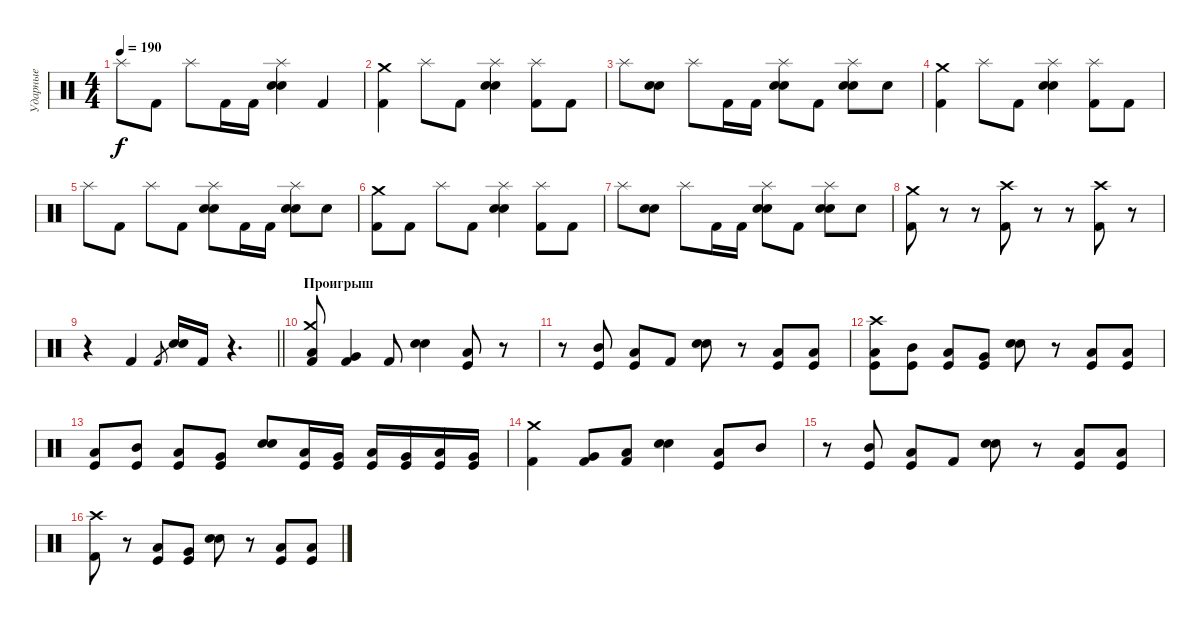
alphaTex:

\track ("Ударные" "Ударные") {instrument percussion}
\staff {score}
\articulation defaults
\ts (4 4)
\tempo 190
\clef neutral
\ks c "Splash (hit)".8{dy f} "Kick (hit) 2".8 "Splash (hit)".8 "Kick (hit) 2".16 "Kick (hit) 2".16
("Splash (hit)" "Electric Snare (hit)" "Snare (hit) 2").4 "Kick (hit) 2".4 |
("Crash medium (hit)" "Kick (hit) 2").4 "Splash (hit)".8 "Kick (hit) 2".8 ("Splash (hit)" "Electric Snare (hit)" "Snare (hit) 2").4 ("Splash (hit)" "Kick (hit) 2").8 "Kick (hit) 2".8 |
"Splash (hit)".8 ("Electric Snare (hit)" "Snare (hit) 2").8 "Splash (hit)".8 "Kick (hit) 2".16 "Kick (hit) 2".16 ("Splash (hit)" "Electric Snare (hit)" "Snare (hit) 2").8 "Kick (hit) 2".8 ("Splash (hit)" "Electric Snare (hit)" "Snare (hit) 2").8 "Electric Snare (hit)".8 |
("Crash medium (hit)" "Kick (hit) 2").4 "Splash (hit)".8 "Kick (hit) 2".8 ("Splash (hit)" "Electric Snare (hit)" "Snare (hit) 2").4 ("Splash (hit)" "Kick (hit) 2").8 "Kick (hit) 2".8 |
"Splash (hit)".8 "Kick (hit) 2".8 "Splash (hit)".8 "Kick (hit) 2".8 ("Splash (hit)" "Electric Snare (hit)" "Snare (hit) 2").8 "Kick (hit) 2".16 "Kick (hit) 2".16 ("Splash (hit)" "Electric Snare (hit)" "Snare (hit) 2").8 "Electric Snare (hit)".8 |
("Crash medium (hit)" "Kick (hit) 2").8 "Kick (hit) 2".8 "Splash (hit)".8 "Kick (hit) 2".8 ("Splash (hit)" "Electric Snare (hit)" "Snare (hit) 2").4 ("Splash (hit)" "Kick (hit) 2").8 "Kick (hit) 2".8 |
"Splash (hit)".8 ("Electric Snare (hit)" "Snare (hit) 2").8 "Splash (hit)".8 "Kick (hit) 2".16 "Kick (hit) 2".16 ("Splash (hit)" "Electric Snare (hit)" "Snare (hit) 2").8 "Kick (hit) 2".8 ("Splash (hit)" "Electric Snare (hit)" "Snare (hit) 2").8 "Electric Snare (hit)".8 |
("Crash medium (hit)" "Kick (hit) 2").8 r.8 r.8 ("Crash high (hit)" "Kick (hit) 2").8 r.8 r.8 ("Crash high (hit)" "Kick (hit) 2").8 r.8 |
\barLineRight lightlight
r.4 "Kick (hit) 2".4 "Kick (hit) 2".8{gr} ("Electric Snare (hit)" "Snare (hit) 2").16 "Kick (hit) 2".16 r.4{d} |
\section ("" "Проигрыш")
("Crash medium (hit)" "Low Tom (hit)" "Kick (hit) 2").8 ("Very Low Tom (hit)" "Kick (hit) 2").4 "Kick (hit) 2".8 ("Electric Snare (hit)" "Snare (hit) 2").4 ("Low Tom (hit)" "Kick (hit)").8 r.8 |
r.8 ("Mid Tom (hit)" "Kick (hit)").8 ("Low Tom (hit)" "Kick (hit)").8 "Kick (hit) 2".8 ("Electric Snare (hit)" "Snare (hit) 2").8 r.8 ("Low Tom (hit)" "Kick (hit)").8 ("Low Tom (hit)" "Kick (hit)").8 |
("Crash high (hit)" "Low Tom (hit)" "Kick (hit)").8 ("Mid Tom (hit)" "Kick (hit)").8 ("Low Tom (hit)" "Kick (hit)").8 ("Very Low Tom (hit)" "Kick (hit)").8 ("Electric Snare (hit)" "Snare (hit) 2").8 r.8 ("Low Tom (hit)" "Kick (hit)").8 ("Low Tom (hit)" "Kick (hit)").8 |
("Low Tom (hit)" "Kick (hit)").8 ("Mid Tom (hit)" "Kick (hit)").8 ("Low Tom (hit)" "Kick (hit)").8 ("Very Low Tom (hit)" "Kick (hit)").8 ("Electric Snare (hit)" "Snare (hit) 2").8 ("Low Tom (hit)" "Kick (hit)").16 ("Very Low Tom (hit)" "Kick (hit)").16 ("Low Tom (hit)" "Kick (hit)").16 ("Very Low Tom (hit)" "Kick (hit)").16 ("Low Tom (hit)" "Kick (hit)").16 ("Very Low Tom (hit)" "Kick (hit)").16 |
("Crash medium (hit)" "Kick (hit) 2").4 ("Very Low Tom (hit)" "Kick (hit) 2").8 ("Low Tom (hit)" "Kick (hit) 2").8 ("Electric Snare (hit)" "Snare (hit) 2").4 ("Low Tom (hit)" "Kick (hit)").8 "Mid Tom (hit)".8 |
r.8 ("Mid Tom (hit)" "Kick (hit)").8 ("Low Tom (hit)" "Kick (hit)").8 "Kick (hit) 2".8 ("Electric Snare (hit)" "Snare (hit) 2").8 r.8 ("Low Tom (hit)" "Kick (hit)").8 ("Low Tom (hit)" "Kick (hit)").8 |
("Crash high (hit)" "Kick (hit) 2").8 r.8 ("Low Tom (hit)" "Kick (hit)").8 ("Very Low Tom (hit)" "Kick (hit)").8 ("Electric Snare (hit)" "Snare (hit) 2").8 r.8 ("Low Tom (hit)" "Kick (hit)").8 ("Low Tom (hit)" "Kick (hit)").8
